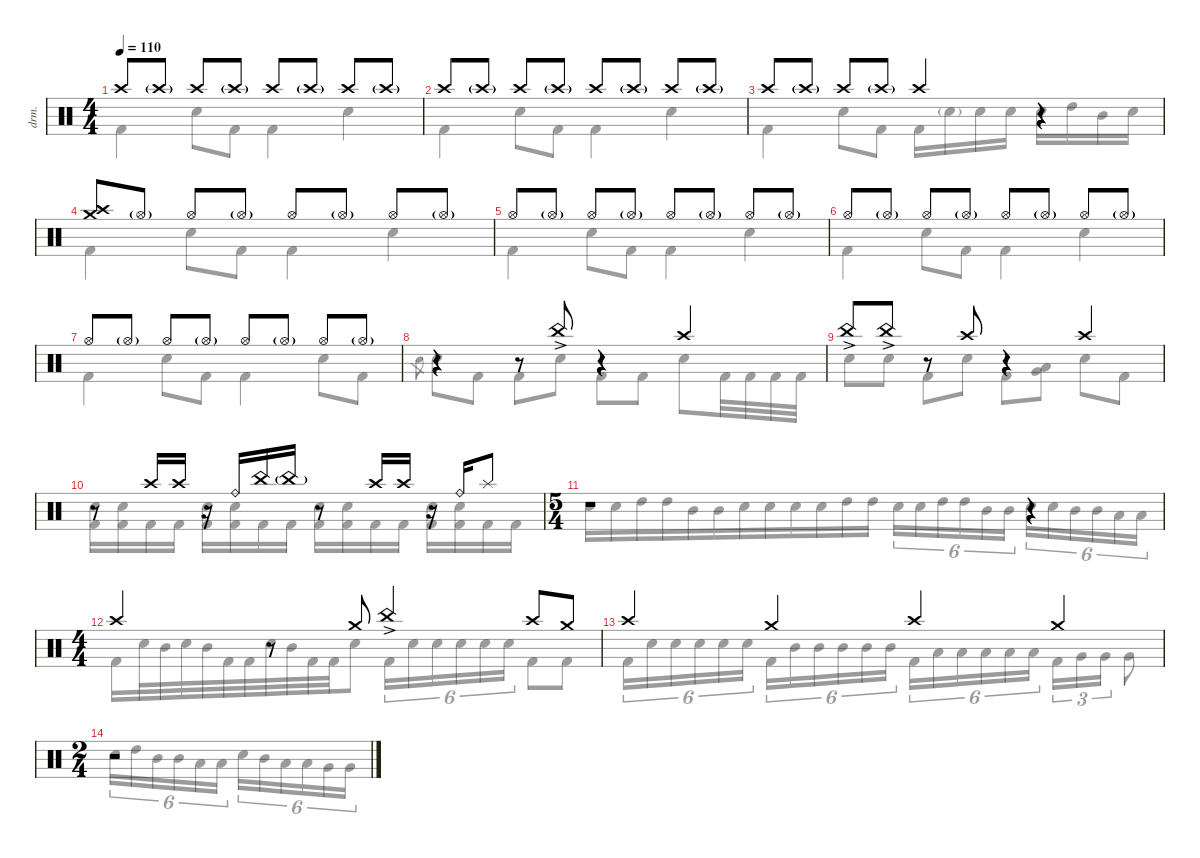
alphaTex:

\defaultSystemsLayout 4
\hideDynamics
\bracketExtendMode nobrackets
\otherSystemsTrackNameOrientation horizontal
\track ("B. Richardson Drums" "drm.") {instrument percussion}
\staff {score}
\articulation defaults
\voice
\ts (4 4)
\tempo 110
\clef neutral
\ks c "Crash high (hit)".8{dy mf beam Up} "Crash high (hit)"{g}.8{beam Up} "Crash high (hit)".8{beam Up} "Crash high (hit)"{g}.8{beam Up} "Crash high (hit)".8{beam Up} "Crash high (hit)"{g}.8{beam Up} "Crash high (hit)".8{beam Up} "Crash high (hit)"{g}.8{beam Up}
|
"Crash high (hit)".8{beam Up} "Crash high (hit)"{g}.8{beam Up} "Crash high (hit)".8{beam Up} "Crash high (hit)"{g}.8{beam Up} "Crash high (hit)".8{beam Up} "Crash high (hit)"{g}.8{beam Up} "Crash high (hit)".8{beam Up} "Crash high (hit)"{g}.8{beam Up} |
"Crash high (hit)".8{beam Up} "Crash high (hit)"{g}.8{beam Up} "Crash high (hit)".8{beam Up} "Crash high (hit)"{g}.8{beam Up} "Crash high (hit)".4{beam Up} r.4{beam Up} |
("Crash high (hit)" "Crash medium (hit)").8{dy f beam Up} "Hi-Hat (open)"{g}.8{dy mf beam Up} "Hi-Hat (open)".8{beam Up} "Hi-Hat (open)"{g}.8{beam Up} "Hi-Hat (open)".8{beam Up} "Hi-Hat (open)"{g}.8{beam Up} "Hi-Hat (open)".8{beam Up} "Hi-Hat (open)"{g}.8{beam Up} |
"Hi-Hat (open)".8{beam Up} "Hi-Hat (open)"{g}.8{beam Up} "Hi-Hat (open)".8{beam Up} "Hi-Hat (open)"{g}.8{beam Up} "Hi-Hat (open)".8{beam Up} "Hi-Hat (open)"{g}.8{beam Up} "Hi-Hat (open)".8{beam Up} "Hi-Hat (open)"{g}.8{beam Up} |
"Hi-Hat (open)".8{dy f beam Up} "Hi-Hat (open)"{g}.8{dy mf beam Up} "Hi-Hat (open)".8{beam Up} "Hi-Hat (open)"{g}.8{beam Up} "Hi-Hat (open)".8{beam Up} "Hi-Hat (open)"{g}.8{beam Up} "Hi-Hat (open)".8{beam Up} "Hi-Hat (open)"{g}.8{beam Up} |
"Hi-Hat (open)".8{dy f beam Up} "Hi-Hat (open)"{g}.8{dy mf beam Up} "Hi-Hat (open)".8{beam Up} "Hi-Hat (open)"{g}.8{beam Up} "Hi-Hat (open)".8{beam Up} "Hi-Hat (open)"{g}.8{beam Up} "Hi-Hat (open)".8{beam Up} "Hi-Hat (open)"{g}.8{beam Up} |
r.4{beam Up} r.8{beam Up} "China (hit)"{ac}.8{dy f beam Up} r.4{beam Up} "Crash high (hit)".4{dy mf beam Up} |
"China (hit)"{ac}.8{dy f beam Up} "China (hit)"{ac}.8{beam Up} r.8{beam Up} "Crash high (hit)".8{dy mf beam Up} r.4{beam Up} "Crash high (hit)".4{beam Up} |
r.8{beam Up} "Crash high (hit)".16{beam Up} "Crash high (hit)".16{beam Up} r.16{beam Up} "Ride (bell)".16{dy f beam Up} "China (hit)".16{beam Up} "China (hit)"{g}.16{dy pp beam Up} r.8{beam Up} "Crash high (hit)".16{dy mf beam Up} "Crash high (hit)".16{beam Up} r.16{beam Up} "Ride (bell)".16{dy f beam Up} "Splash (hit)".8{beam Up} |
\ts (5 4)
\beaming (8 6 4)
r.1{beam Up} r.4{beam Up} |
\ts (4 4)
\beaming (8 4 4)
"Crash high (hit)".4{dy mf beam Up} r.8{beam Up} "Crash medium (hit)".8{beam Up} "China (hit)"{ac}.4{dy f beam Up} "Crash high (hit)".8{dy mf beam Up} "Crash medium (hit)".8{beam Up} |
"Crash high (hit)".4{beam Up} "Crash medium (hit)".4{beam Up} "Crash high (hit)".4{beam Up} "Crash medium (hit)".4{beam Up} |
\ts (2 4)
\beaming (8 2 2)
r.2{beam Up}
\voice
\clef neutral
\ottava regular
\simile none
\ks c "Kick (hit) 2".4{dy fff beam Down} "Snare (hit) 2".8{beam Down} "Kick (hit) 2".8{beam Down} "Kick (hit) 2".4{beam Down} "Snare (hit) 2".4{beam Down}
|
"Kick (hit) 2".4{beam Down} "Snare (hit) 2".8{beam Down} "Kick (hit) 2".8{beam Down} "Kick (hit) 2".4{beam Down} "Snare (hit) 2".4{beam Down} |
"Kick (hit) 2".4{beam Down} "Snare (hit) 2".8{beam Down} "Kick (hit) 2".8{beam Down} "Kick (hit) 2".16{beam Down} "Snare (hit) 2"{g}.16{dy mf beam Down} "Snare (hit) 2".16{beam Down} "Snare (hit) 2".16{dy f beam Down} "Snare (hit) 2".16{dy fff beam Down} "High Tom (hit)".16{beam Down} "Mid Tom (hit)".16{beam Down} "Snare (hit) 2".16{beam Down} |
"Kick (hit) 2".4{beam Down} "Snare (hit) 2".8{beam Down} "Kick (hit) 2".8{beam Down} "Kick (hit) 2".4{beam Down} "Snare (hit) 2".4{beam Down} |
"Kick (hit) 2".4{beam Down} "Snare (hit) 2".8{beam Down} "Kick (hit) 2".8{beam Down} "Kick (hit) 2".4{beam Down} "Snare (hit) 2".4{beam Down} |
"Kick (hit) 2".4{beam Down} "Snare (hit) 2".8{beam Down} "Kick (hit) 2".8{beam Down} "Kick (hit) 2".4{beam Down} "Snare (hit) 2".4{beam Down} |
"Kick (hit) 2".4{beam Down} "Snare (hit) 2".8{beam Down} "Kick (hit) 2".8{beam Down} "Kick (hit) 2".4{beam Down} "Snare (hit) 2".8{beam Down} "Kick (hit) 2".8{beam Down} |
"Electric Snare (hit)".8{gr dy ff beam Down} "Snare (hit) 2".8{dy fff beam Down} "Kick (hit) 2".8{beam Down} "Kick (hit) 2".8{beam Down} "Snare (hit) 2".8{beam Down} "Kick (hit) 2".8{beam Down} "Kick (hit) 2".8{beam Down} "Snare (hit) 2".8{beam Down} "Kick (hit) 2".32{beam Down} "Kick (hit) 2".32{beam Down} "Kick (hit) 2".32{beam Down} "Kick (hit) 2".32{beam Down} |
"Snare (hit) 2".8{beam Down} "Snare (hit) 2".8{beam Down} "Kick (hit) 2".8{beam Down} "Snare (hit) 2".8{beam Down} "Kick (hit) 2".8{beam Down} ("Low Tom (hit)" "Very Low Tom (hit)").8{beam Down} "Snare (hit) 2".8{beam Down} "Kick (hit) 2".8{beam Down} |
("Snare (hit) 2" "Kick (hit) 2").16{dy f beam Down} ("Snare (hit) 2" "Kick (hit) 2").16{beam Down} "Kick (hit) 2".16{dy fff beam Down} "Kick (hit) 2".16{beam Down} ("Snare (hit) 2" "Kick (hit) 2").16{dy f beam Down} ("Snare (hit) 2" "Kick (hit) 2").16{beam Down} "Kick (hit) 2".16{dy fff beam Down} "Kick (hit) 2".16{beam Down} ("Snare (hit) 2" "Kick (hit) 2").16{dy f beam Down} ("Snare (hit) 2" "Kick (hit) 2").16{beam Down} "Kick (hit) 2".16{dy fff beam Down} "Kick (hit) 2".16{beam Down} ("Snare (hit) 2" "Kick (hit) 2").16{dy f beam Down} ("Snare (hit) 2" "Kick (hit) 2").16{beam Down} "Kick (hit) 2".16{dy fff beam Down} "Kick (hit) 2".16{beam Down} |
"Snare (hit) 2".16{beam Down} "Snare (hit) 2".16{beam Down} "High Tom (hit)".16{beam Down} "High Tom (hit)".16{beam Down} "Mid Tom (hit)".16{beam Down} "Mid Tom (hit)".16{beam Down} "Snare (hit) 2".16{beam Down} "Snare (hit) 2".16{beam Down} "Snare (hit) 2".16{beam Down} "Snare (hit) 2".16{beam Down} "High Tom (hit)".16{beam Down} "High Tom (hit)".16{beam Down} "Snare (hit) 2".16{tu (6 4) beam Down} "Snare (hit) 2".16{tu (6 4) beam Down} "High Tom (hit)".16{tu (6 4) beam Down} "High Tom (hit)".16{tu (6 4) beam Down} "Mid Tom (hit)".16{tu (6 4) beam Down} "Mid Tom (hit)".16{tu (6 4) beam Down} "Snare (hit) 2".16{tu (6 4) beam Down} "Snare (hit) 2".16{tu (6 4) beam Down} "Mid Tom (hit)".16{tu (6 4) beam Down} "Mid Tom (hit)".16{tu (6 4) beam Down} "Low Tom (hit)".16{tu (6 4) beam Down} "Low Tom (hit)".16{tu (6 4) beam Down} |
"Kick (hit) 2".16{beam Down} "Snare (hit) 2".32{beam Down} "Mid Tom (hit)".32{beam Down} "Snare (hit) 2".32{beam Down} "Mid Tom (hit)".32{beam Down} "Kick (hit) 2".32{beam Down} "Kick (hit) 2".32{beam Down} "Snare (hit) 2".32{beam Down} "Mid Tom (hit)".32{beam Down} "Kick (hit) 2".32{beam Down} "Kick (hit) 2".32{beam Down} "Snare (hit) 2".8{beam Down} "Kick (hit) 2".16{tu (6 4) beam Down} "Snare (hit) 2".16{tu (6 4) beam Down} "Snare (hit) 2".16{tu (6 4) beam Down} "Snare (hit) 2".16{tu (6 4) beam Down} "Snare (hit) 2".16{tu (6 4) beam Down} "Snare (hit) 2".16{tu (6 4) beam Down} "Kick (hit) 2".8{beam Down} "Kick (hit) 2".8{beam Down} |
"Kick (hit) 2".16{tu (6 4) beam Down} "Snare (hit) 2".16{tu (6 4) beam Down} "Snare (hit) 2".16{tu (6 4) beam Down} "Snare (hit) 2".16{tu (6 4) beam Down} "Snare (hit) 2".16{tu (6 4) beam Down} "Snare (hit) 2".16{tu (6 4) beam Down} "Kick (hit) 2".16{tu (6 4) beam Down} "Mid Tom (hit)".16{tu (6 4) beam Down} "Mid Tom (hit)".16{tu (6 4) beam Down} "Mid Tom (hit)".16{tu (6 4) beam Down} "Mid Tom (hit)".16{tu (6 4) beam Down} "Mid Tom (hit)".16{tu (6 4) beam Down} "Kick (hit) 2".16{tu (6 4) beam Down} "Low Tom (hit)".16{tu (6 4) beam Down} "Low Tom (hit)".16{tu (6 4) beam Down} "Low Tom (hit)".16{tu (6 4) beam Down} "Low Tom (hit)".16{tu (6 4) beam Down} "Low Tom (hit)".16{tu (6 4) beam Down} "Kick (hit) 2".16{tu (3 2) beam Down} "Very Low Tom (hit)".16{tu (3 2) beam Down} "Very Low Tom (hit)".16{tu (3 2) beam Down} "Very Low Tom (hit)".8{beam Down} |
"Snare (hit) 2".16{tu (6 4) beam Down} "High Tom (hit)".16{tu (6 4) beam Down} "Mid Tom (hit)".16{tu (6 4) beam Down} "Mid Tom (hit)".16{tu (6 4) beam Down} "Low Tom (hit)".16{tu (6 4) beam Down} "Low Tom (hit)".16{tu (6 4) beam Down} "Snare (hit) 2".16{tu (6 4) beam Down} "Mid Tom (hit)".16{tu (6 4) beam Down} "Low Tom (hit)".16{tu (6 4) beam Down} "Low Tom (hit)".16{tu (6 4) beam Down} "Very Low Tom (hit)".16{tu (6 4) beam Down} "Very Low Tom (hit)".16{tu (6 4) beam Down}
